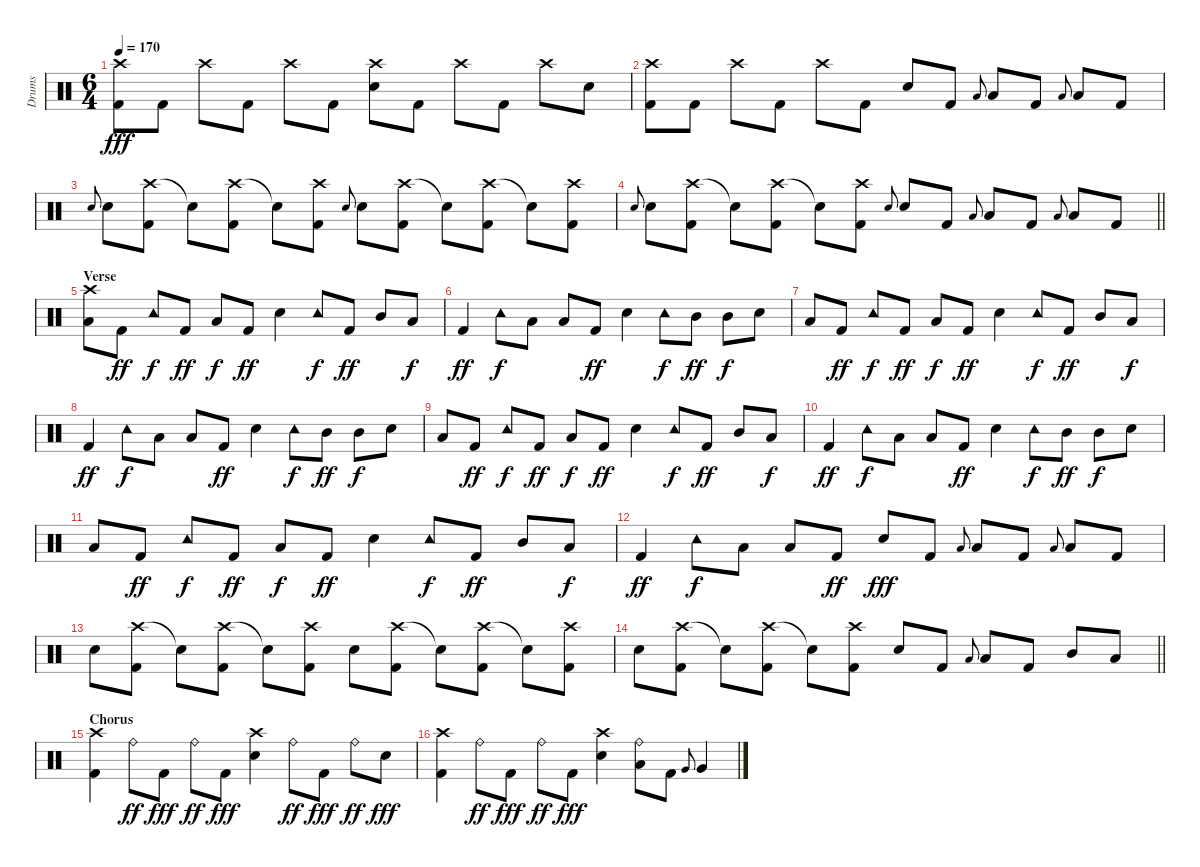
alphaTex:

\track ("Drums" "Drums") {instrument percussion}
\staff {score}
\articulation defaults
\ts (6 4)
\tempo 170
\clef neutral
\ks c
("Crash high (hit)" "Kick (hit) 2").8{dy fff} "Kick (hit) 2".8 "Crash high (hit)".8 "Kick (hit) 2".8 "Crash high (hit)".8 "Kick (hit) 2".8 ("Crash high (hit)" "Snare (hit) 2").8 "Kick (hit) 2".8 "Crash high (hit)".8 "Kick (hit) 2".8 "Crash high (hit)".8 "Snare (hit) 2".8 |
("Crash high (hit)" "Kick (hit) 2").8 "Kick (hit) 2".8 "Crash high (hit)".8 "Kick (hit) 2".8 "Crash high (hit)".8 "Kick (hit) 2".8 "Snare (hit) 2".8 "Kick (hit) 2".8 "Low Tom (hit)".8{gr onbeat} "Low Tom (hit)".8 "Kick (hit) 2".8 "Low Tom (hit)".8{gr onbeat} "Low Tom (hit)".8 "Kick (hit) 2".8 |
"Snare (hit) 2".8{gr onbeat} "Snare (hit) 2".8 ("Crash high (hit)" "Kick (hit) 2").8 "Snare (hit)"{t}.8 ("Crash high (hit)" "Kick (hit) 2").8 "Snare (hit)"{t}.8 ("Crash high (hit)" "Kick (hit) 2").8 "Snare (hit) 2".8{gr onbeat} "Snare (hit) 2".8 ("Crash high (hit)" "Kick (hit) 2").8 "Snare (hit)"{t}.8 ("Crash high (hit)" "Kick (hit) 2").8 "Snare (hit)"{t}.8 ("Crash high (hit)" "Kick (hit) 2").8 |
\barLineRight lightlight "Snare (hit) 2".8{gr onbeat} "Snare (hit) 2".8
("Crash high (hit)" "Kick (hit) 2").8 "Snare (hit)"{t}.8 ("Crash high (hit)" "Kick (hit) 2").8 "Snare (hit)"{t}.8 ("Crash high (hit)" "Kick (hit) 2").8 "Snare (hit) 2".8{gr onbeat} "Snare (hit) 2".8 "Kick (hit) 2".8 "Low Tom (hit)".8{gr onbeat} "Low Tom (hit)".8 "Kick (hit) 2".8 "Low Tom (hit)".8{gr onbeat} "Low Tom (hit)".8 "Kick (hit) 2".8 |
\section ("" "Verse")
("Crash high (hit)" "Low Tom (hit)").8 "Kick (hit) 2".8{dy ff} "Tambourine (hit)".8{dy f} "Kick (hit) 2".8{dy ff} "Low Tom (hit)".8{dy f} "Kick (hit) 2".8{dy ff} "Snare (hit) 2".4 "Tambourine (hit)".8{dy f} "Kick (hit) 2".8{dy ff} "Mid Tom (hit)".8 "Low Tom (hit)".8{dy f} |
"Kick (hit) 2".4{dy ff} "Tambourine (hit)".8{dy f} "Low Tom (hit)".8 "Low Tom (hit)".8 "Kick (hit) 2".8{dy ff} "Snare (hit) 2".4 "Tambourine (hit)".8{dy f} "Mid Tom (hit)".8{dy ff} "Mid Tom (hit)".8{dy f} "Snare (hit) 2".8 |
"Low Tom (hit)".8 "Kick (hit) 2".8{dy ff} "Tambourine (hit)".8{dy f} "Kick (hit) 2".8{dy ff} "Low Tom (hit)".8{dy f} "Kick (hit) 2".8{dy ff} "Snare (hit) 2".4 "Tambourine (hit)".8{dy f} "Kick (hit) 2".8{dy ff} "Mid Tom (hit)".8 "Low Tom (hit)".8{dy f} |
"Kick (hit) 2".4{dy ff} "Tambourine (hit)".8{dy f} "Low Tom (hit)".8 "Low Tom (hit)".8 "Kick (hit) 2".8{dy ff} "Snare (hit) 2".4 "Tambourine (hit)".8{dy f} "Mid Tom (hit)".8{dy ff} "Mid Tom (hit)".8{dy f} "Snare (hit) 2".8 |
"Low Tom (hit)".8 "Kick (hit) 2".8{dy ff} "Tambourine (hit)".8{dy f} "Kick (hit) 2".8{dy ff} "Low Tom (hit)".8{dy f} "Kick (hit) 2".8{dy ff} "Snare (hit) 2".4 "Tambourine (hit)".8{dy f} "Kick (hit) 2".8{dy ff} "Mid Tom (hit)".8 "Low Tom (hit)".8{dy f} |
"Kick (hit) 2".4{dy ff} "Tambourine (hit)".8{dy f} "Low Tom (hit)".8 "Low Tom (hit)".8 "Kick (hit) 2".8{dy ff} "Snare (hit) 2".4 "Tambourine (hit)".8{dy f} "Mid Tom (hit)".8{dy ff} "Mid Tom (hit)".8{dy f} "Snare (hit) 2".8 |
"Low Tom (hit)".8 "Kick (hit) 2".8{dy ff} "Tambourine (hit)".8{dy f} "Kick (hit) 2".8{dy ff} "Low Tom (hit)".8{dy f} "Kick (hit) 2".8{dy ff} "Snare (hit) 2".4 "Tambourine (hit)".8{dy f} "Kick (hit) 2".8{dy ff} "Mid Tom (hit)".8 "Low Tom (hit)".8{dy f} |
"Kick (hit) 2".4{dy ff} "Tambourine (hit)".8{dy f} "Low Tom (hit)".8 "Low Tom (hit)".8 "Kick (hit) 2".8{dy ff} "Snare (hit) 2".8{dy fff} "Kick (hit) 2".8 "Low Tom (hit)".8{gr onbeat} "Low Tom (hit)".8 "Kick (hit) 2".8 "Low Tom (hit)".8{gr onbeat} "Low Tom (hit)".8 "Kick (hit) 2".8 |
"Snare (hit) 2".8 ("Crash high (hit)" "Kick (hit) 2").8 "Snare (hit)"{t}.8 ("Crash high (hit)" "Kick (hit) 2").8 "Snare (hit)"{t}.8 ("Crash high (hit)" "Kick (hit) 2").8 "Snare (hit) 2".8 ("Crash high (hit)" "Kick (hit) 2").8 "Snare (hit)"{t}.8 ("Crash high (hit)" "Kick (hit) 2").8 "Snare (hit)"{t}.8 ("Crash high (hit)" "Kick (hit) 2").8 |
\barLineRight lightlight "Snare (hit) 2".8
("Crash high (hit)" "Kick (hit) 2").8 "Snare (hit)"{t}.8 ("Crash high (hit)" "Kick (hit) 2").8 "Snare (hit)"{t}.8 ("Crash high (hit)" "Kick (hit) 2").8 "Snare (hit) 2".8 "Kick (hit) 2".8 "Low Tom (hit)".8{gr onbeat} "Low Tom (hit)".8 "Kick (hit) 2".8 "Mid Tom (hit)".8 "Low Tom (hit)".8 |
\section ("" "Chorus")
("Crash high (hit)" "Kick (hit) 2").4 "Ride (bell)".8{dy ff} "Kick (hit) 2".8{dy fff} "Ride (bell)".8{dy ff} "Kick (hit) 2".8{dy fff} ("Crash high (hit)" "Snare (hit) 2").4 "Ride (bell)".8{dy ff} "Kick (hit) 2".8{dy fff} "Ride (bell)".8{dy ff} "Snare (hit) 2".8{dy fff} |
("Crash high (hit)" "Kick (hit) 2").4 "Ride (bell)".8{dy ff} "Kick (hit) 2".8{dy fff} "Ride (bell)".8{dy ff} "Kick (hit) 2".8{dy fff} ("Crash high (hit)" "Snare (hit) 2").4 ("Ride (bell)" "Low Tom (hit)").8 "Kick (hit) 2".8 "Very Low Tom (hit)".8{gr onbeat} "Very Low Tom (hit)".4
